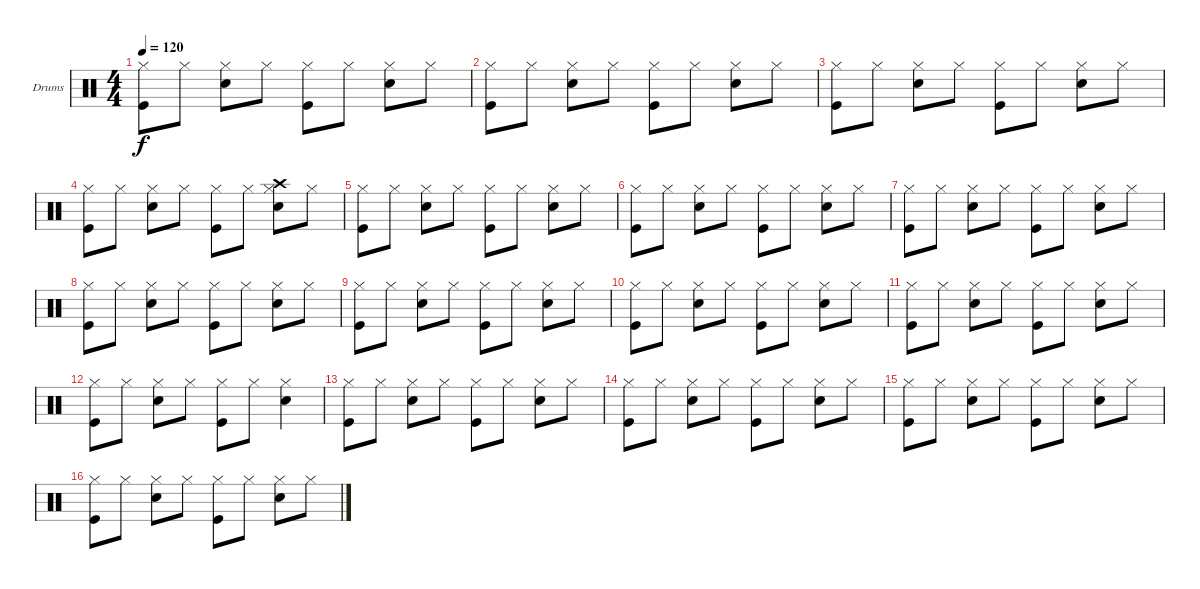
\bracketExtendMode groupsimilarinstruments
\firstSystemTrackNameOrientation horizontal
\otherSystemsTrackNameOrientation horizontal
\track ("Drumkit" "Drums") {instrument percussion}
\staff {score}
\articulation defaults
\ts (4 4)
\tempo 120
\clef neutral
\ks c
("Hi-Hat (closed)" "Kick (hit)").8{dy f} "Hi-Hat (closed)".8 ("Hi-Hat (closed)" "Snare (hit) 2").8 "Hi-Hat (closed)".8 ("Hi-Hat (closed)" "Kick (hit)").8 "Hi-Hat (closed)".8 ("Hi-Hat (closed)" "Snare (hit) 2").8 "Hi-Hat (closed)".8 |
("Hi-Hat (closed)" "Kick (hit)").8 "Hi-Hat (closed)".8 ("Hi-Hat (closed)" "Snare (hit) 2").8 "Hi-Hat (closed)".8 ("Hi-Hat (closed)" "Kick (hit)").8 "Hi-Hat (closed)".8 ("Hi-Hat (closed)" "Snare (hit) 2").8 "Hi-Hat (closed)".8 |
("Hi-Hat (closed)" "Kick (hit)").8 "Hi-Hat (closed)".8 ("Hi-Hat (closed)" "Snare (hit) 2").8 "Hi-Hat (closed)".8 ("Hi-Hat (closed)" "Kick (hit)").8 "Hi-Hat (closed)".8 ("Hi-Hat (closed)" "Snare (hit) 2").8 "Hi-Hat (closed)".8 |
("Hi-Hat (closed)" "Kick (hit)").8 "Hi-Hat (closed)".8 ("Hi-Hat (closed)" "Snare (hit) 2").8 "Hi-Hat (closed)".8 ("Hi-Hat (closed)" "Kick (hit)").8 "Hi-Hat (closed)".8 ("Hi-Hat (closed)" "Snare (hit) 2" "Crash high (hit)").8 "Hi-Hat (closed)".8 |
("Hi-Hat (closed)" "Kick (hit)").8 "Hi-Hat (closed)".8 ("Hi-Hat (closed)" "Snare (hit) 2").8 "Hi-Hat (closed)".8 ("Hi-Hat (closed)" "Kick (hit)").8 "Hi-Hat (closed)".8 ("Hi-Hat (closed)" "Snare (hit) 2").8 "Hi-Hat (closed)".8 |
("Hi-Hat (closed)" "Kick (hit)").8 "Hi-Hat (closed)".8 ("Hi-Hat (closed)" "Snare (hit) 2").8 "Hi-Hat (closed)".8 ("Hi-Hat (closed)" "Kick (hit)").8 "Hi-Hat (closed)".8 ("Hi-Hat (closed)" "Snare (hit) 2").8 "Hi-Hat (closed)".8 |
("Hi-Hat (closed)" "Kick (hit)").8 "Hi-Hat (closed)".8 ("Hi-Hat (closed)" "Snare (hit) 2").8 "Hi-Hat (closed)".8 ("Hi-Hat (closed)" "Kick (hit)").8 "Hi-Hat (closed)".8 ("Hi-Hat (closed)" "Snare (hit) 2").8 "Hi-Hat (closed)".8 |
("Hi-Hat (closed)" "Kick (hit)").8 "Hi-Hat (closed)".8 ("Hi-Hat (closed)" "Snare (hit) 2").8 "Hi-Hat (closed)".8 ("Hi-Hat (closed)" "Kick (hit)").8 "Hi-Hat (closed)".8 ("Hi-Hat (closed)" "Snare (hit) 2").8 "Hi-Hat (closed)".8 |
("Hi-Hat (closed)" "Kick (hit)").8 "Hi-Hat (closed)".8 ("Hi-Hat (closed)" "Snare (hit) 2").8 "Hi-Hat (closed)".8 ("Hi-Hat (closed)" "Kick (hit)").8 "Hi-Hat (closed)".8 ("Hi-Hat (closed)" "Snare (hit) 2").8 "Hi-Hat (closed)".8 |
("Hi-Hat (closed)" "Kick (hit)").8 "Hi-Hat (closed)".8 ("Hi-Hat (closed)" "Snare (hit) 2").8 "Hi-Hat (closed)".8 ("Hi-Hat (closed)" "Kick (hit)").8 "Hi-Hat (closed)".8 ("Hi-Hat (closed)" "Snare (hit) 2").8 "Hi-Hat (closed)".8 |
("Hi-Hat (closed)" "Kick (hit)").8 "Hi-Hat (closed)".8 ("Hi-Hat (closed)" "Snare (hit) 2").8 "Hi-Hat (closed)".8 ("Hi-Hat (closed)" "Kick (hit)").8 "Hi-Hat (closed)".8 ("Hi-Hat (closed)" "Snare (hit) 2").8 "Hi-Hat (closed)".8 |
("Hi-Hat (closed)" "Kick (hit)").8 "Hi-Hat (closed)".8 ("Hi-Hat (closed)" "Snare (hit) 2").8 "Hi-Hat (closed)".8 ("Hi-Hat (closed)" "Kick (hit)").8 "Hi-Hat (closed)".8 ("Hi-Hat (closed)" "Snare (hit) 2").4 |
("Hi-Hat (closed)" "Kick (hit)").8 "Hi-Hat (closed)".8 ("Hi-Hat (closed)" "Snare (hit) 2").8 "Hi-Hat (closed)".8 ("Hi-Hat (closed)" "Kick (hit)").8 "Hi-Hat (closed)".8 ("Hi-Hat (closed)" "Snare (hit) 2").8 "Hi-Hat (closed)".8 |
("Hi-Hat (closed)" "Kick (hit)").8 "Hi-Hat (closed)".8 ("Hi-Hat (closed)" "Snare (hit) 2").8 "Hi-Hat (closed)".8 ("Hi-Hat (closed)" "Kick (hit)").8 "Hi-Hat (closed)".8 ("Hi-Hat (closed)" "Snare (hit) 2").8 "Hi-Hat (closed)".8 |
("Hi-Hat (closed)" "Kick (hit)").8 "Hi-Hat (closed)".8 ("Hi-Hat (closed)" "Snare (hit) 2").8 "Hi-Hat (closed)".8 ("Hi-Hat (closed)" "Kick (hit)").8 "Hi-Hat (closed)".8 ("Hi-Hat (closed)" "Snare (hit) 2").8 "Hi-Hat (closed)".8 |
("Hi-Hat (closed)" "Kick (hit)").8 "Hi-Hat (closed)".8 ("Hi-Hat (closed)" "Snare (hit) 2").8 "Hi-Hat (closed)".8 ("Hi-Hat (closed)" "Kick (hit)").8 "Hi-Hat (closed)".8 ("Hi-Hat (closed)" "Snare (hit) 2").8 "Hi-Hat (closed)".8
